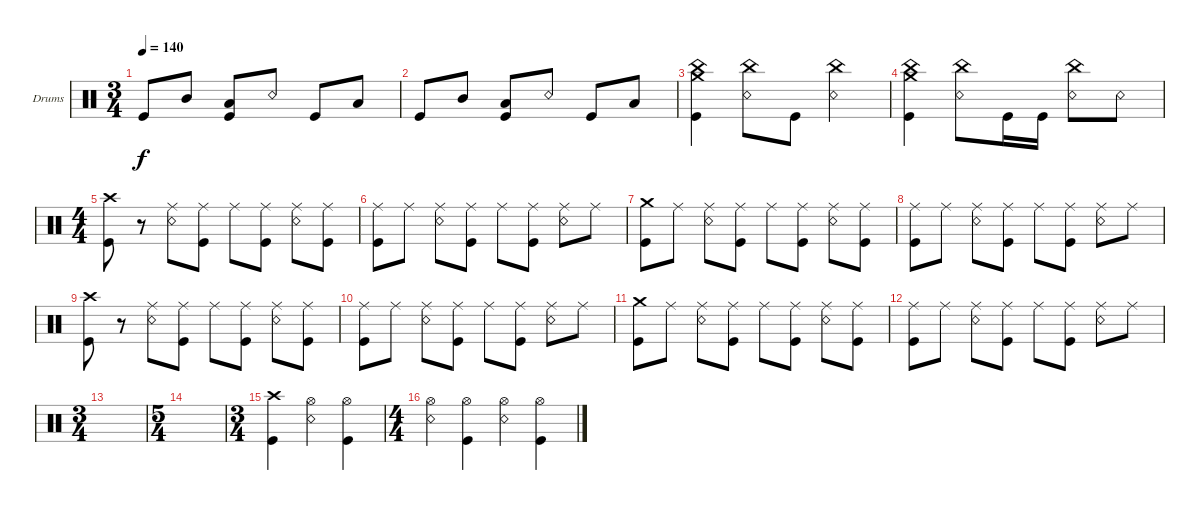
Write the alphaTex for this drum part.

\defaultSystemsLayout 4
\bracketExtendMode groupsimilarinstruments
\firstSystemTrackNameOrientation horizontal
\otherSystemsTrackNameOrientation horizontal
\track ("Drumkit" "Drums") {instrument percussion}
\staff {score}
\articulation defaults
\ts (3 4)
\tempo 140
\clef neutral
\ks c "Kick (hit)".8{dy f} "Mid Tom (hit)".8
("Kick (hit)" "Low Tom (hit)").8 "Snare (rim shot)".8 "Kick (hit)".8 "Low Tom (hit)".8 |
"Kick (hit)".8 "Mid Tom (hit)".8 ("Kick (hit)" "Low Tom (hit)").8 "Snare (rim shot)".8 "Kick (hit)".8 "Low Tom (hit)".8 |
("Crash medium (hit)" "China (hit)" "Kick (hit)").4 ("Snare (rim shot)" "China (hit)").8 "Kick (hit)".8 ("Snare (rim shot)" "China (hit)").4 |
("Crash medium (hit)" "China (hit)" "Kick (hit)").4 ("Snare (rim shot)" "China (hit)").8 "Kick (hit)".16 "Kick (hit)".16 ("Snare (rim shot)" "China (hit)").8 "Snare (rim shot)".8 |
\ts (4 4)
("Kick (hit)" "Crash high (hit)").8 r.8 ("Ride (middle)" "Snare (rim shot)").8 ("Ride (middle)" "Kick (hit)").8 "Ride (middle)".8 ("Ride (middle)" "Kick (hit)").8 ("Ride (middle)" "Snare (rim shot)").8 ("Ride (middle)" "Kick (hit)").8 |
("Ride (middle)" "Kick (hit)").8 "Ride (middle)".8 ("Ride (middle)" "Snare (rim shot)").8 ("Ride (middle)" "Kick (hit)").8 "Ride (middle)".8 ("Ride (middle)" "Kick (hit)").8 ("Ride (middle)" "Snare (rim shot)").8 "Ride (middle)".8 |
("Kick (hit)" "Crash medium (hit)").8 "Ride (middle)".8 ("Ride (middle)" "Snare (rim shot)").8 ("Ride (middle)" "Kick (hit)").8 "Ride (middle)".8 ("Ride (middle)" "Kick (hit)").8 ("Ride (middle)" "Snare (rim shot)").8 ("Ride (middle)" "Kick (hit)").8 |
("Ride (middle)" "Kick (hit)").8 "Ride (middle)".8 ("Ride (middle)" "Snare (rim shot)").8 ("Ride (middle)" "Kick (hit)").8 "Ride (middle)".8 ("Ride (middle)" "Kick (hit)").8 ("Ride (middle)" "Snare (rim shot)").8 "Ride (middle)".8 |
("Kick (hit)" "Crash high (hit)").8 r.8 ("Ride (middle)" "Snare (rim shot)").8 ("Ride (middle)" "Kick (hit)").8 "Ride (middle)".8 ("Ride (middle)" "Kick (hit)").8 ("Ride (middle)" "Snare (rim shot)").8 ("Ride (middle)" "Kick (hit)").8 |
("Ride (middle)" "Kick (hit)").8 "Ride (middle)".8 ("Ride (middle)" "Snare (rim shot)").8 ("Ride (middle)" "Kick (hit)").8 "Ride (middle)".8 ("Ride (middle)" "Kick (hit)").8 ("Ride (middle)" "Snare (rim shot)").8 "Ride (middle)".8 |
("Kick (hit)" "Crash medium (hit)").8 "Ride (middle)".8 ("Ride (middle)" "Snare (rim shot)").8 ("Ride (middle)" "Kick (hit)").8 "Ride (middle)".8 ("Ride (middle)" "Kick (hit)").8 ("Ride (middle)" "Snare (rim shot)").8 ("Ride (middle)" "Kick (hit)").8 |
("Ride (middle)" "Kick (hit)").8 "Ride (middle)".8 ("Ride (middle)" "Snare (rim shot)").8 ("Ride (middle)" "Kick (hit)").8 "Ride (middle)".8 ("Ride (middle)" "Kick (hit)").8 ("Ride (middle)" "Snare (rim shot)").8 "Ride (middle)".8 |
\ts (3 4)
|
\ts (5 4)
|
\ts (3 4)
("Crash high (hit)" "Kick (hit)").4 ("Hi-Hat (open)" "Snare (rim shot)").4 ("Hi-Hat (open)" "Kick (hit)").4 |
\ts (4 4)
("Hi-Hat (open)" "Snare (rim shot)").4 ("Hi-Hat (open)" "Kick (hit)").4 ("Hi-Hat (open)" "Snare (rim shot)").4 ("Hi-Hat (open)" "Kick (hit)").4
